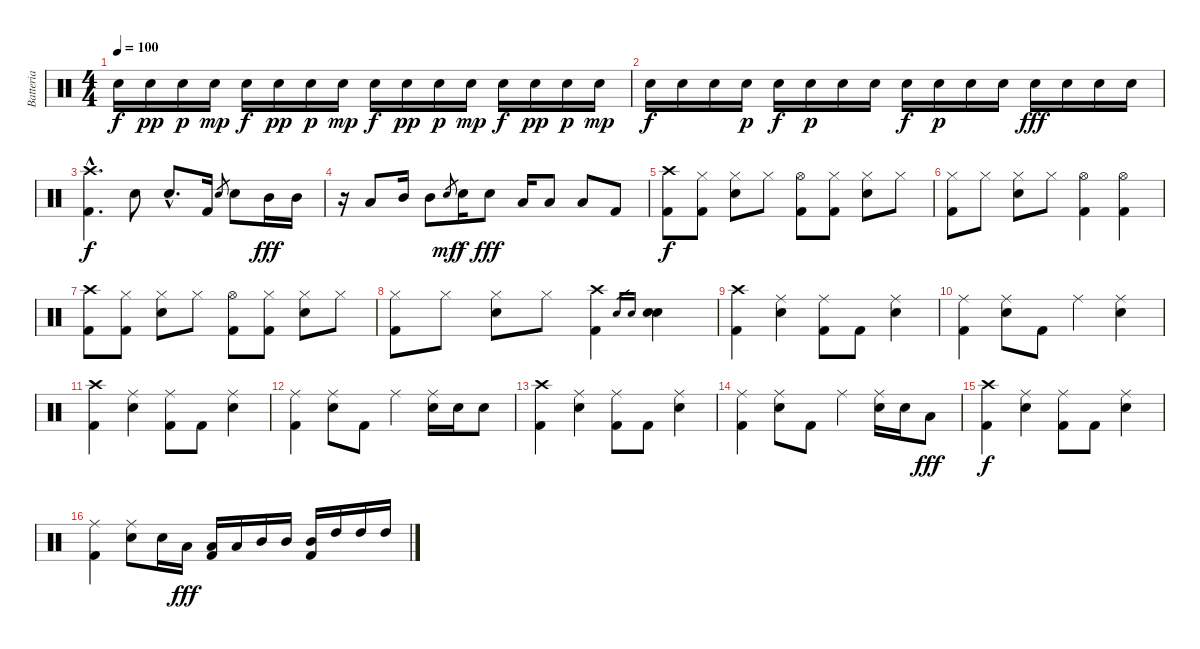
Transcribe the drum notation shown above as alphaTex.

\track ("Batteria" "Batteria") {instrument percussion}
\staff {score}
\articulation defaults
\ts (4 4)
\tempo 100
\clef neutral
\ks c "Electric Snare (hit)".16{dy f} "Snare (hit) 2".16{dy pp} "Snare (hit) 2".16{dy p} "Snare (hit) 2".16{dy mp} "Electric Snare (hit)".16{dy f} "Snare (hit) 2".16{dy pp} "Snare (hit) 2".16{dy p} "Snare (hit) 2".16{dy mp} "Electric Snare (hit)".16{dy f} "Snare (hit) 2".16{dy pp} "Snare (hit) 2".16{dy p} "Snare (hit) 2".16{dy mp} "Electric Snare (hit)".16{dy f} "Snare (hit) 2".16{dy pp} "Snare (hit) 2".16{dy p} "Snare (hit) 2".16{dy mp}
|
"Electric Snare (hit)".16{dy f} "Electric Snare (hit)".16 "Electric Snare (hit)".16 "Snare (hit) 2".16{dy p} "Electric Snare (hit)".16{dy f} "Snare (hit) 2".16{dy p} "Snare (hit) 2".16 "Snare (hit) 2".16 "Electric Snare (hit)".16{dy f} "Snare (hit) 2".16{dy p} "Snare (hit) 2".16 "Snare (hit) 2".16 "Electric Snare (hit)".16{dy fff} "Electric Snare (hit)".16 "Electric Snare (hit)".16 "Electric Snare (hit)".16 |
("Crash high (hit)"{hac} "Kick (hit) 2"{hac}).4{d dy f} "Electric Snare (hit)".8 "Electric Snare (hit)"{hac}.8{d} "Kick (hit) 2".16 "Electric Snare (hit)".8{gr} "Electric Snare (hit)".8 "Mid Tom (hit)".16{dy fff} "Mid Tom (hit)".16 |
r.16 "Low Tom (hit)".8 "Mid Tom (hit)".16 "Mid Tom (hit)".8 "Electric Snare (hit)".8{gr dy mf} "Electric Snare (hit)".16{dy f} "Electric Snare (hit)".8{dy fff} "Low Tom (hit)".16 "Low Tom (hit)".8 "Low Tom (hit)".8 "Kick (hit) 2".8 |
("Crash high (hit)" "Kick (hit) 2").8{dy f} ("Hi-Hat (closed)" "Kick (hit) 2").8 ("Hi-Hat (closed)" "Electric Snare (hit)").8 "Hi-Hat (closed)".8 ("Hi-Hat (open)" "Kick (hit) 2").8 ("Hi-Hat (closed)" "Kick (hit) 2").8 ("Hi-Hat (closed)" "Electric Snare (hit)").8 "Hi-Hat (closed)".8 |
("Hi-Hat (closed)" "Kick (hit) 2").8 "Hi-Hat (closed)".8 ("Hi-Hat (closed)" "Electric Snare (hit)").8 "Hi-Hat (closed)".8 ("Hi-Hat (open)" "Kick (hit) 2").4 ("Hi-Hat (open)" "Kick (hit) 2").4 |
("Crash high (hit)" "Kick (hit) 2").8 ("Hi-Hat (closed)" "Kick (hit) 2").8 ("Hi-Hat (closed)" "Electric Snare (hit)").8 "Hi-Hat (closed)".8 ("Hi-Hat (open)" "Kick (hit) 2").8 ("Hi-Hat (closed)" "Kick (hit) 2").8 ("Hi-Hat (closed)" "Electric Snare (hit)").8 "Hi-Hat (closed)".8 |
("Hi-Hat (closed)" "Kick (hit) 2").8 "Hi-Hat (closed)".8 ("Hi-Hat (closed)" "Electric Snare (hit)").8 "Hi-Hat (closed)".8 ("Crash high (hit)" "Kick (hit) 2").4 "Electric Snare (hit)".16{gr} "Electric Snare (hit)".16{gr} ("Electric Snare (hit)" "Electric Snare (hit)").4 |
("Crash high (hit)" "Kick (hit) 2").4 ("Ride (middle)" "Electric Snare (hit)").4 ("Ride (middle)" "Kick (hit) 2").8 "Kick (hit) 2".8 ("Ride (middle)" "Electric Snare (hit)").4 |
("Ride (middle)" "Kick (hit) 2").4 ("Ride (middle)" "Electric Snare (hit)").8 "Kick (hit) 2".8 "Ride (middle)".4 ("Ride (middle)" "Electric Snare (hit)").4 |
("Crash high (hit)" "Kick (hit) 2").4 ("Ride (middle)" "Electric Snare (hit)").4 ("Ride (middle)" "Kick (hit) 2").8 "Kick (hit) 2".8 ("Ride (middle)" "Electric Snare (hit)").4 |
("Ride (middle)" "Kick (hit) 2").4 ("Ride (middle)" "Electric Snare (hit)").8 "Kick (hit) 2".8 "Ride (middle)".4 ("Ride (middle)" "Electric Snare (hit)").16 "Electric Snare (hit)".16 "Electric Snare (hit)".8 |
("Crash high (hit)" "Kick (hit) 2").4 ("Ride (middle)" "Electric Snare (hit)").4 ("Ride (middle)" "Kick (hit) 2").8 "Kick (hit) 2".8 ("Ride (middle)" "Electric Snare (hit)").4 |
("Ride (middle)" "Kick (hit) 2").4 ("Ride (middle)" "Electric Snare (hit)").8 "Kick (hit) 2".8 "Ride (middle)".4 ("Ride (middle)" "Electric Snare (hit)").16 "Electric Snare (hit)".16 "Low Tom (hit)".8{dy fff} |
("Crash high (hit)" "Kick (hit) 2").4{dy f} ("Ride (middle)" "Electric Snare (hit)").4 ("Ride (middle)" "Kick (hit) 2").8 "Kick (hit) 2".8 ("Ride (middle)" "Electric Snare (hit)").4 |
("Ride (middle)" "Kick (hit) 2").4 ("Ride (middle)" "Electric Snare (hit)").8 "Electric Snare (hit)".16 "Low Tom (hit)".16{dy fff} ("Low Tom (hit)" "Kick (hit) 2").16 "Low Tom (hit)".16 "Mid Tom (hit)".16 "Mid Tom (hit)".16 ("Mid Tom (hit)" "Kick (hit) 2").16 "High Tom (hit)".16 "High Tom (hit)".16 "High Tom (hit)".16
